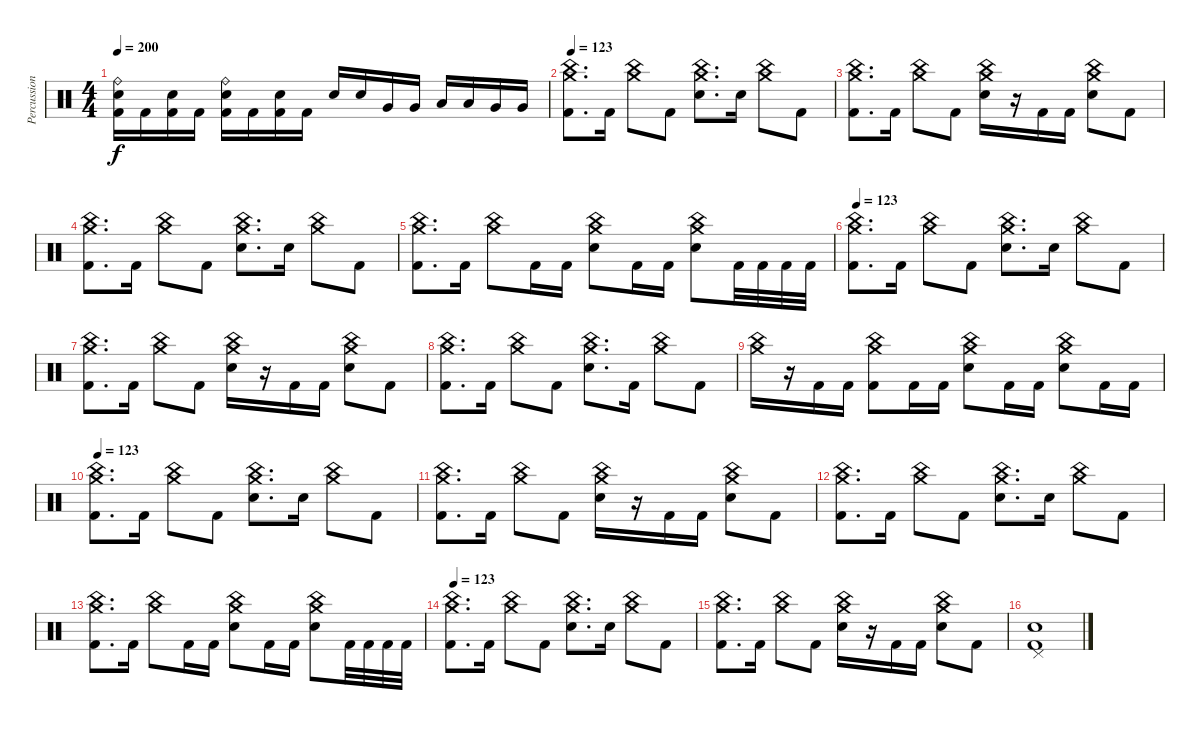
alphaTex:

\track ("Percussions" "Percussion") {instrument percussion}
\staff {score}
\articulation defaults
\ts (4 4)
\tempo 200
\clef neutral
\ks c
("Ride (bell)" "Electric Snare (hit)" "Kick (hit) 2").16{dy f} "Kick (hit) 2".16 ("Electric Snare (hit)" "Kick (hit) 2").16 "Kick (hit) 2".16 ("Ride (bell)" "Electric Snare (hit)" "Kick (hit) 2").16 "Kick (hit) 2".16 ("Electric Snare (hit)" "Kick (hit) 2").16 "Kick (hit) 2".16 "Electric Snare (hit)".16 "Electric Snare (hit)".16 "Very Low Tom (hit)".16 "Very Low Tom (hit)".16 "Low Floor Tom (hit)".16 "Low Floor Tom (hit)".16 "Very Low Tom (hit)".16 "Very Low Tom (hit)".16 |
\tempo 123
("China (hit)" "Crash medium (hit)" "Kick (hit) 2").8{d} "Kick (hit) 2".16 ("China (hit)" "Crash medium (hit)").8 "Kick (hit) 2".8 ("China (hit)" "Crash medium (hit)" "Electric Snare (hit)").8{d} "Electric Snare (hit)".16 ("China (hit)" "Crash medium (hit)").8 "Kick (hit) 2".8 |
("China (hit)" "Crash medium (hit)" "Kick (hit) 2").8{d} "Kick (hit) 2".16 ("China (hit)" "Crash medium (hit)").8 "Kick (hit) 2".8 ("China (hit)" "Crash medium (hit)" "Electric Snare (hit)").16 r.16 "Kick (hit) 2".16 "Kick (hit) 2".16 ("China (hit)" "Crash medium (hit)" "Electric Snare (hit)").8 "Kick (hit) 2".8 |
("China (hit)" "Crash medium (hit)" "Kick (hit) 2").8{d} "Kick (hit) 2".16 ("China (hit)" "Crash medium (hit)").8 "Kick (hit) 2".8 ("China (hit)" "Crash medium (hit)" "Electric Snare (hit)").8{d} "Electric Snare (hit)".16 ("China (hit)" "Crash medium (hit)").8 "Kick (hit) 2".8 |
("China (hit)" "Crash medium (hit)" "Kick (hit) 2").8{d} "Kick (hit) 2".16 ("China (hit)" "Crash medium (hit)").8 "Kick (hit) 2".16 "Kick (hit) 2".16 ("China (hit)" "Crash medium (hit)" "Electric Snare (hit)").8 "Kick (hit) 2".16 "Kick (hit) 2".16 ("China (hit)" "Crash medium (hit)" "Electric Snare (hit)").8 "Kick (hit) 2".32 "Kick (hit) 2".32 "Kick (hit) 2".32 "Kick (hit) 2".32 |
\tempo 123
("China (hit)" "Crash medium (hit)" "Kick (hit) 2").8{d} "Kick (hit) 2".16 ("China (hit)" "Crash medium (hit)").8 "Kick (hit) 2".8 ("China (hit)" "Crash medium (hit)" "Electric Snare (hit)").8{d} "Electric Snare (hit)".16 ("China (hit)" "Crash medium (hit)").8 "Kick (hit) 2".8 |
("China (hit)" "Crash medium (hit)" "Kick (hit) 2").8{d} "Kick (hit) 2".16 ("China (hit)" "Crash medium (hit)").8 "Kick (hit) 2".8 ("China (hit)" "Crash medium (hit)" "Electric Snare (hit)").16 r.16 "Kick (hit) 2".16 "Kick (hit) 2".16 ("China (hit)" "Crash medium (hit)" "Electric Snare (hit)").8 "Kick (hit) 2".8 |
("China (hit)" "Crash medium (hit)" "Kick (hit) 2").8{d} "Kick (hit) 2".16 ("China (hit)" "Crash medium (hit)").8 "Kick (hit) 2".8 ("China (hit)" "Crash medium (hit)" "Electric Snare (hit)").8{d} "Kick (hit) 2".16 ("China (hit)" "Crash medium (hit)").8 "Kick (hit) 2".8 |
("China (hit)" "Crash medium (hit)").16 r.16 "Kick (hit) 2".16 "Kick (hit) 2".16 ("China (hit)" "Crash medium (hit)" "Kick (hit) 2").8 "Kick (hit) 2".16 "Kick (hit) 2".16 ("China (hit)" "Crash medium (hit)" "Electric Snare (hit)").8 "Kick (hit) 2".16 "Kick (hit) 2".16 ("China (hit)" "Crash medium (hit)" "Electric Snare (hit)").8 "Kick (hit) 2".16 "Kick (hit) 2".16 |
\tempo 123
("China (hit)" "Crash medium (hit)" "Kick (hit) 2").8{d} "Kick (hit) 2".16 ("China (hit)" "Crash medium (hit)").8 "Kick (hit) 2".8 ("China (hit)" "Crash medium (hit)" "Electric Snare (hit)").8{d} "Electric Snare (hit)".16 ("China (hit)" "Crash medium (hit)").8 "Kick (hit) 2".8 |
("China (hit)" "Crash medium (hit)" "Kick (hit) 2").8{d} "Kick (hit) 2".16 ("China (hit)" "Crash medium (hit)").8 "Kick (hit) 2".8 ("China (hit)" "Crash medium (hit)" "Electric Snare (hit)").16 r.16 "Kick (hit) 2".16 "Kick (hit) 2".16 ("China (hit)" "Crash medium (hit)" "Electric Snare (hit)").8 "Kick (hit) 2".8 |
("China (hit)" "Crash medium (hit)" "Kick (hit) 2").8{d} "Kick (hit) 2".16 ("China (hit)" "Crash medium (hit)").8 "Kick (hit) 2".8 ("China (hit)" "Crash medium (hit)" "Electric Snare (hit)").8{d} "Electric Snare (hit)".16 ("China (hit)" "Crash medium (hit)").8 "Kick (hit) 2".8 |
("China (hit)" "Crash medium (hit)" "Kick (hit) 2").8{d} "Kick (hit) 2".16 ("China (hit)" "Crash medium (hit)").8 "Kick (hit) 2".16 "Kick (hit) 2".16 ("China (hit)" "Crash medium (hit)" "Electric Snare (hit)").8 "Kick (hit) 2".16 "Kick (hit) 2".16 ("China (hit)" "Crash medium (hit)" "Electric Snare (hit)").8 "Kick (hit) 2".32 "Kick (hit) 2".32 "Kick (hit) 2".32 "Kick (hit) 2".32 |
\tempo 123
("China (hit)" "Crash medium (hit)" "Kick (hit) 2").8{d} "Kick (hit) 2".16 ("China (hit)" "Crash medium (hit)").8 "Kick (hit) 2".8 ("China (hit)" "Crash medium (hit)" "Electric Snare (hit)").8{d} "Electric Snare (hit)".16 ("China (hit)" "Crash medium (hit)").8 "Kick (hit) 2".8 |
("China (hit)" "Crash medium (hit)" "Kick (hit) 2").8{d} "Kick (hit) 2".16 ("China (hit)" "Crash medium (hit)").8 "Kick (hit) 2".8 ("China (hit)" "Crash medium (hit)" "Electric Snare (hit)").16 r.16 "Kick (hit) 2".16 "Kick (hit) 2".16 ("China (hit)" "Crash medium (hit)" "Electric Snare (hit)").8 "Kick (hit) 2".8 |
("Pedal Hi-Hat (hit)" "Electric Snare (hit)" "Kick (hit) 2").1
